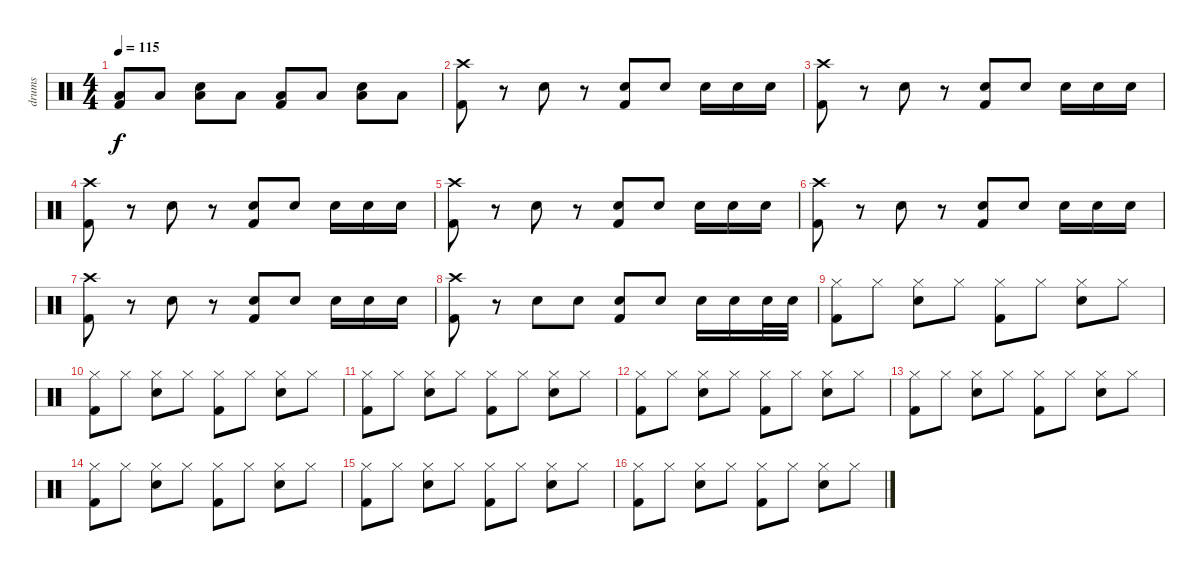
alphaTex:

\track ("drums" "drums") {instrument percussion}
\staff {score}
\articulation defaults
\ts (4 4)
\tempo 115
\clef neutral
\ks c
("Low Floor Tom (hit)" "Kick (hit) 2").8{dy f} "Low Floor Tom (hit)".8 ("Low Floor Tom (hit)" "Electric Snare (hit)").8 "Low Floor Tom (hit)".8 ("Low Floor Tom (hit)" "Kick (hit) 2").8 "Low Floor Tom (hit)".8 ("Low Floor Tom (hit)" "Electric Snare (hit)").8 "Low Floor Tom (hit)".8 |
("Crash high (hit)" "Kick (hit) 2").8 r.8 "Electric Snare (hit)".8 r.8 ("Electric Snare (hit)" "Kick (hit) 2").8 "Electric Snare (hit)".8 "Electric Snare (hit)".16 "Electric Snare (hit)".16 "Electric Snare (hit)".16 |
("Crash high (hit)" "Kick (hit) 2").8 r.8 "Electric Snare (hit)".8 r.8 ("Electric Snare (hit)" "Kick (hit) 2").8 "Electric Snare (hit)".8 "Electric Snare (hit)".16 "Electric Snare (hit)".16 "Electric Snare (hit)".16 |
("Crash high (hit)" "Kick (hit) 2").8 r.8 "Electric Snare (hit)".8 r.8 ("Electric Snare (hit)" "Kick (hit) 2").8 "Electric Snare (hit)".8 "Electric Snare (hit)".16 "Electric Snare (hit)".16 "Electric Snare (hit)".16 |
("Crash high (hit)" "Kick (hit) 2").8 r.8 "Electric Snare (hit)".8 r.8 ("Electric Snare (hit)" "Kick (hit) 2").8 "Electric Snare (hit)".8 "Electric Snare (hit)".16 "Electric Snare (hit)".16 "Electric Snare (hit)".16 |
("Crash high (hit)" "Kick (hit) 2").8 r.8 "Electric Snare (hit)".8 r.8 ("Electric Snare (hit)" "Kick (hit) 2").8 "Electric Snare (hit)".8 "Electric Snare (hit)".16 "Electric Snare (hit)".16 "Electric Snare (hit)".16 |
("Crash high (hit)" "Kick (hit) 2").8 r.8 "Electric Snare (hit)".8 r.8 ("Electric Snare (hit)" "Kick (hit) 2").8 "Electric Snare (hit)".8 "Electric Snare (hit)".16 "Electric Snare (hit)".16 "Electric Snare (hit)".16 |
("Crash high (hit)" "Kick (hit) 2").8 r.8 "Electric Snare (hit)".8 "Electric Snare (hit)".8 ("Electric Snare (hit)" "Kick (hit) 2").8 "Electric Snare (hit)".8 "Electric Snare (hit)".16 "Electric Snare (hit)".16 "Electric Snare (hit)".32 "Electric Snare (hit)".32 |
("Hi-Hat (closed)" "Kick (hit) 2").8 "Hi-Hat (closed)".8 ("Hi-Hat (closed)" "Electric Snare (hit)").8 "Hi-Hat (closed)".8 ("Hi-Hat (closed)" "Kick (hit) 2").8 "Hi-Hat (closed)".8 ("Hi-Hat (closed)" "Electric Snare (hit)").8 "Hi-Hat (closed)".8 |
("Hi-Hat (closed)" "Kick (hit) 2").8 "Hi-Hat (closed)".8 ("Hi-Hat (closed)" "Electric Snare (hit)").8 "Hi-Hat (closed)".8 ("Hi-Hat (closed)" "Kick (hit) 2").8 "Hi-Hat (closed)".8 ("Hi-Hat (closed)" "Electric Snare (hit)").8 "Hi-Hat (closed)".8 |
("Hi-Hat (closed)" "Kick (hit) 2").8 "Hi-Hat (closed)".8 ("Hi-Hat (closed)" "Electric Snare (hit)").8 "Hi-Hat (closed)".8 ("Hi-Hat (closed)" "Kick (hit) 2").8 "Hi-Hat (closed)".8 ("Hi-Hat (closed)" "Electric Snare (hit)").8 "Hi-Hat (closed)".8 |
("Hi-Hat (closed)" "Kick (hit) 2").8 "Hi-Hat (closed)".8 ("Hi-Hat (closed)" "Electric Snare (hit)").8 "Hi-Hat (closed)".8 ("Hi-Hat (closed)" "Kick (hit) 2").8 "Hi-Hat (closed)".8 ("Hi-Hat (closed)" "Electric Snare (hit)").8 "Hi-Hat (closed)".8 |
("Hi-Hat (closed)" "Kick (hit) 2").8 "Hi-Hat (closed)".8 ("Hi-Hat (closed)" "Electric Snare (hit)").8 "Hi-Hat (closed)".8 ("Hi-Hat (closed)" "Kick (hit) 2").8 "Hi-Hat (closed)".8 ("Hi-Hat (closed)" "Electric Snare (hit)").8 "Hi-Hat (closed)".8 |
("Hi-Hat (closed)" "Kick (hit) 2").8 "Hi-Hat (closed)".8 ("Hi-Hat (closed)" "Electric Snare (hit)").8 "Hi-Hat (closed)".8 ("Hi-Hat (closed)" "Kick (hit) 2").8 "Hi-Hat (closed)".8 ("Hi-Hat (closed)" "Electric Snare (hit)").8 "Hi-Hat (closed)".8 |
("Hi-Hat (closed)" "Kick (hit) 2").8 "Hi-Hat (closed)".8 ("Hi-Hat (closed)" "Electric Snare (hit)").8 "Hi-Hat (closed)".8 ("Hi-Hat (closed)" "Kick (hit) 2").8 "Hi-Hat (closed)".8 ("Hi-Hat (closed)" "Electric Snare (hit)").8 "Hi-Hat (closed)".8 |
("Hi-Hat (closed)" "Kick (hit) 2").8 "Hi-Hat (closed)".8 ("Hi-Hat (closed)" "Electric Snare (hit)").8 "Hi-Hat (closed)".8 ("Hi-Hat (closed)" "Kick (hit) 2").8 "Hi-Hat (closed)".8 ("Hi-Hat (closed)" "Electric Snare (hit)").8 "Hi-Hat (closed)".8
